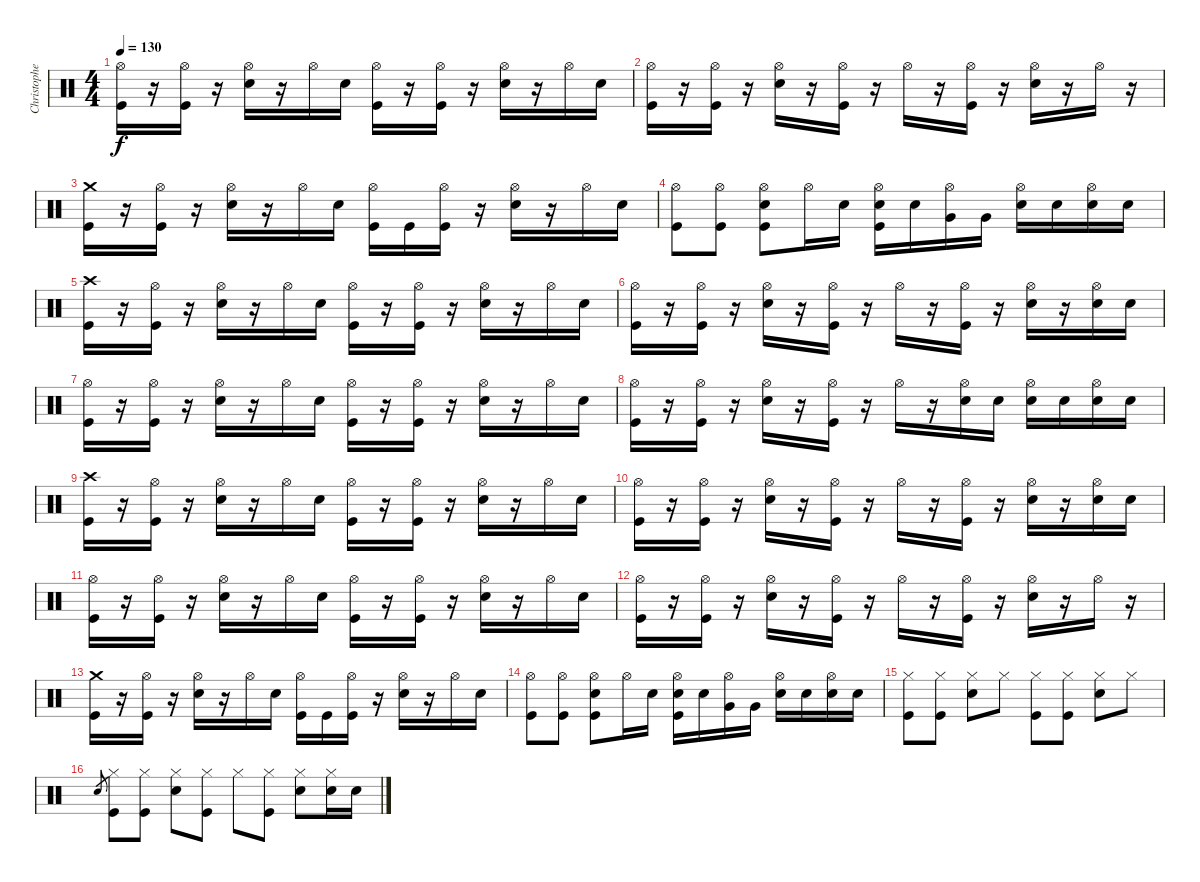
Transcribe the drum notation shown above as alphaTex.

\track ("Christopher - Drums" "Christophe") {instrument percussion}
\staff {score}
\articulation defaults
\ts (4 4)
\tempo 130
\clef neutral
\ks c
("Hi-Hat (open)" "Kick (hit)").16{dy f} r.16 ("Hi-Hat (open)" "Kick (hit)").16 r.16 ("Hi-Hat (open)" "Snare (hit) 2").16 r.16 "Hi-Hat (open)".16 "Snare (hit) 2".16 ("Hi-Hat (open)" "Kick (hit)").16 r.16 ("Hi-Hat (open)" "Kick (hit)").16 r.16 ("Hi-Hat (open)" "Snare (hit) 2").16 r.16 "Hi-Hat (open)".16 "Snare (hit) 2".16 |
("Hi-Hat (open)" "Kick (hit)").16 r.16 ("Hi-Hat (open)" "Kick (hit)").16 r.16 ("Hi-Hat (open)" "Snare (hit) 2").16 r.16 ("Hi-Hat (open)" "Kick (hit)").16 r.16 "Hi-Hat (open)".16 r.16 ("Hi-Hat (open)" "Kick (hit)").16 r.16 ("Hi-Hat (open)" "Snare (hit) 2").16 r.16 "Hi-Hat (open)".16 r.16 |
("Crash medium (hit)" "Kick (hit)").16 r.16 ("Hi-Hat (open)" "Kick (hit)").16 r.16 ("Hi-Hat (open)" "Snare (hit) 2").16 r.16 "Hi-Hat (open)".16 "Snare (hit) 2".16 ("Hi-Hat (open)" "Kick (hit)").16 "Kick (hit)".16 ("Hi-Hat (open)" "Kick (hit)").16 r.16 ("Hi-Hat (open)" "Snare (hit) 2").16 r.16 "Hi-Hat (open)".16 "Snare (hit) 2".16 |
("Hi-Hat (open)" "Kick (hit)").8 ("Hi-Hat (open)" "Kick (hit)").8 ("Hi-Hat (open)" "Snare (hit) 2" "Kick (hit)").8 "Hi-Hat (open)".16 "Snare (hit) 2".16 ("Hi-Hat (open)" "Snare (hit) 2" "Kick (hit)").16 "Snare (hit) 2".16 ("Hi-Hat (open)" "Very Low Tom (hit)").16 "Very Low Tom (hit)".16 ("Hi-Hat (open)" "Snare (hit) 2").16 "Snare (hit) 2".16 ("Hi-Hat (open)" "Snare (hit) 2").16 "Snare (hit) 2".16 |
("Crash high (hit)" "Kick (hit)").16 r.16 ("Hi-Hat (open)" "Kick (hit)").16 r.16 ("Hi-Hat (open)" "Snare (hit) 2").16 r.16 "Hi-Hat (open)".16 "Snare (hit) 2".16 ("Hi-Hat (open)" "Kick (hit)").16 r.16 ("Hi-Hat (open)" "Kick (hit)").16 r.16 ("Hi-Hat (open)" "Snare (hit) 2").16 r.16 "Hi-Hat (open)".16 "Snare (hit) 2".16 |
("Hi-Hat (open)" "Kick (hit)").16 r.16 ("Hi-Hat (open)" "Kick (hit)").16 r.16 ("Hi-Hat (open)" "Snare (hit) 2").16 r.16 ("Hi-Hat (open)" "Kick (hit)").16 r.16 "Hi-Hat (open)".16 r.16 ("Hi-Hat (open)" "Kick (hit)").16 r.16 ("Hi-Hat (open)" "Snare (hit) 2").16 r.16 ("Hi-Hat (open)" "Snare (hit) 2").16 "Snare (hit) 2".16 |
("Hi-Hat (open)" "Kick (hit)").16 r.16 ("Hi-Hat (open)" "Kick (hit)").16 r.16 ("Hi-Hat (open)" "Snare (hit) 2").16 r.16 "Hi-Hat (open)".16 "Snare (hit) 2".16 ("Hi-Hat (open)" "Kick (hit)").16 r.16 ("Hi-Hat (open)" "Kick (hit)").16 r.16 ("Hi-Hat (open)" "Snare (hit) 2").16 r.16 "Hi-Hat (open)".16 "Snare (hit) 2".16 |
("Hi-Hat (open)" "Kick (hit)").16 r.16 ("Hi-Hat (open)" "Kick (hit)").16 r.16 ("Hi-Hat (open)" "Snare (hit) 2").16 r.16 ("Hi-Hat (open)" "Kick (hit)").16 r.16 "Hi-Hat (open)".16 r.16 ("Hi-Hat (open)" "Snare (hit) 2").16 "Snare (hit) 2".16 ("Hi-Hat (open)" "Snare (hit) 2").16 "Snare (hit) 2".16 ("Hi-Hat (open)" "Snare (hit) 2").16 "Snare (hit) 2".16 |
("Crash high (hit)" "Kick (hit)").16 r.16 ("Hi-Hat (open)" "Kick (hit)").16 r.16 ("Hi-Hat (open)" "Snare (hit) 2").16 r.16 "Hi-Hat (open)".16 "Snare (hit) 2".16 ("Hi-Hat (open)" "Kick (hit)").16 r.16 ("Hi-Hat (open)" "Kick (hit)").16 r.16 ("Hi-Hat (open)" "Snare (hit) 2").16 r.16 "Hi-Hat (open)".16 "Snare (hit) 2".16 |
("Hi-Hat (open)" "Kick (hit)").16 r.16 ("Hi-Hat (open)" "Kick (hit)").16 r.16 ("Hi-Hat (open)" "Snare (hit) 2").16 r.16 ("Hi-Hat (open)" "Kick (hit)").16 r.16 "Hi-Hat (open)".16 r.16 ("Hi-Hat (open)" "Kick (hit)").16 r.16 ("Hi-Hat (open)" "Snare (hit) 2").16 r.16 ("Hi-Hat (open)" "Snare (hit) 2").16 "Snare (hit) 2".16 |
("Hi-Hat (open)" "Kick (hit)").16 r.16 ("Hi-Hat (open)" "Kick (hit)").16 r.16 ("Hi-Hat (open)" "Snare (hit) 2").16 r.16 "Hi-Hat (open)".16 "Snare (hit) 2".16 ("Hi-Hat (open)" "Kick (hit)").16 r.16 ("Hi-Hat (open)" "Kick (hit)").16 r.16 ("Hi-Hat (open)" "Snare (hit) 2").16 r.16 "Hi-Hat (open)".16 "Snare (hit) 2".16 |
("Hi-Hat (open)" "Kick (hit)").16 r.16 ("Hi-Hat (open)" "Kick (hit)").16 r.16 ("Hi-Hat (open)" "Snare (hit) 2").16 r.16 ("Hi-Hat (open)" "Kick (hit)").16 r.16 "Hi-Hat (open)".16 r.16 ("Hi-Hat (open)" "Kick (hit)").16 r.16 ("Hi-Hat (open)" "Snare (hit) 2").16 r.16 "Hi-Hat (open)".16 r.16 |
("Crash medium (hit)" "Kick (hit)").16 r.16 ("Hi-Hat (open)" "Kick (hit)").16 r.16 ("Hi-Hat (open)" "Snare (hit) 2").16 r.16 "Hi-Hat (open)".16 "Snare (hit) 2".16 ("Hi-Hat (open)" "Kick (hit)").16 "Kick (hit)".16 ("Hi-Hat (open)" "Kick (hit)").16 r.16 ("Hi-Hat (open)" "Snare (hit) 2").16 r.16 "Hi-Hat (open)".16 "Snare (hit) 2".16 |
("Hi-Hat (open)" "Kick (hit)").8 ("Hi-Hat (open)" "Kick (hit)").8 ("Hi-Hat (open)" "Snare (hit) 2" "Kick (hit)").8 "Hi-Hat (open)".16 "Snare (hit) 2".16 ("Hi-Hat (open)" "Snare (hit) 2" "Kick (hit)").16 "Snare (hit) 2".16 ("Hi-Hat (open)" "Very Low Tom (hit)").16 "Very Low Tom (hit)".16 ("Hi-Hat (open)" "Snare (hit) 2").16 "Snare (hit) 2".16 ("Hi-Hat (open)" "Snare (hit) 2").16 "Snare (hit) 2".16 |
("Hi-Hat (closed)" "Kick (hit)").8 ("Hi-Hat (closed)" "Kick (hit)").8 ("Hi-Hat (closed)" "Snare (hit) 2").8 "Hi-Hat (closed)".8 ("Hi-Hat (closed)" "Kick (hit)").8 ("Hi-Hat (closed)" "Kick (hit)").8 ("Hi-Hat (closed)" "Snare (hit) 2").8 "Hi-Hat (closed)".8 |
"Snare (hit) 2".8{gr} ("Hi-Hat (closed)" "Kick (hit)").8 ("Hi-Hat (closed)" "Kick (hit)").8 ("Hi-Hat (closed)" "Snare (hit) 2").8 ("Hi-Hat (closed)" "Kick (hit)").8 "Hi-Hat (closed)".8 ("Hi-Hat (closed)" "Kick (hit)").8 ("Hi-Hat (closed)" "Snare (hit) 2").8 ("Hi-Hat (closed)" "Snare (hit) 2").16 "Snare (hit) 2".16
